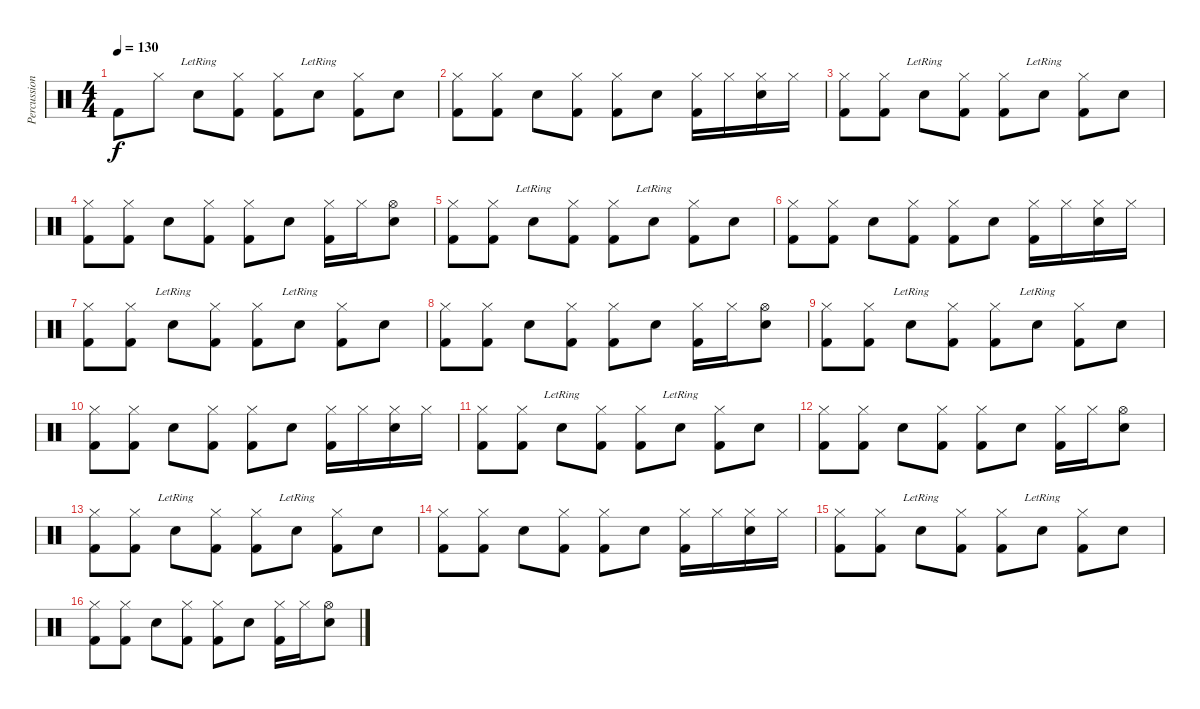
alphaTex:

\track ("Percussion" "Percussion") {instrument percussion}
\staff {score}
\articulation defaults
\ts (4 4)
\tempo 130
\clef neutral
\ks c "Kick (hit) 2".8{dy f} "Hi-Hat (closed)".8 "Snare (hit) 2"{lr}.8
("Hi-Hat (closed)" "Kick (hit) 2").8 ("Hi-Hat (closed)" "Kick (hit) 2").8 "Snare (hit) 2"{lr}.8 ("Hi-Hat (closed)" "Kick (hit) 2").8 "Snare (hit) 2".8 |
("Hi-Hat (closed)" "Kick (hit) 2").8 ("Hi-Hat (closed)" "Kick (hit) 2").8 "Snare (hit) 2".8 ("Hi-Hat (closed)" "Kick (hit) 2").8 ("Hi-Hat (closed)" "Kick (hit) 2").8 "Snare (hit) 2".8 ("Hi-Hat (closed)" "Kick (hit) 2").16 "Hi-Hat (closed)".16 ("Hi-Hat (closed)" "Snare (hit) 2").16 "Hi-Hat (closed)".16 |
("Hi-Hat (closed)" "Kick (hit) 2").8 ("Hi-Hat (closed)" "Kick (hit) 2").8 "Snare (hit) 2"{lr}.8 ("Hi-Hat (closed)" "Kick (hit) 2").8 ("Hi-Hat (closed)" "Kick (hit) 2").8 "Snare (hit) 2"{lr}.8 ("Hi-Hat (closed)" "Kick (hit) 2").8 "Snare (hit) 2".8 |
("Hi-Hat (closed)" "Kick (hit) 2").8 ("Hi-Hat (closed)" "Kick (hit) 2").8 "Snare (hit) 2".8 ("Hi-Hat (closed)" "Kick (hit) 2").8 ("Hi-Hat (closed)" "Kick (hit) 2").8 "Snare (hit) 2".8 ("Hi-Hat (closed)" "Kick (hit) 2").16 "Hi-Hat (closed)".16 ("Hi-Hat (open)" "Snare (hit) 2").8 |
("Hi-Hat (closed)" "Kick (hit) 2").8 ("Hi-Hat (closed)" "Kick (hit) 2").8 "Snare (hit) 2"{lr}.8 ("Hi-Hat (closed)" "Kick (hit) 2").8 ("Hi-Hat (closed)" "Kick (hit) 2").8 "Snare (hit) 2"{lr}.8 ("Hi-Hat (closed)" "Kick (hit) 2").8 "Snare (hit) 2".8 |
("Hi-Hat (closed)" "Kick (hit) 2").8 ("Hi-Hat (closed)" "Kick (hit) 2").8 "Snare (hit) 2".8 ("Hi-Hat (closed)" "Kick (hit) 2").8 ("Hi-Hat (closed)" "Kick (hit) 2").8 "Snare (hit) 2".8 ("Hi-Hat (closed)" "Kick (hit) 2").16 "Hi-Hat (closed)".16 ("Hi-Hat (closed)" "Snare (hit) 2").16 "Hi-Hat (closed)".16 |
("Hi-Hat (closed)" "Kick (hit) 2").8 ("Hi-Hat (closed)" "Kick (hit) 2").8 "Snare (hit) 2"{lr}.8 ("Hi-Hat (closed)" "Kick (hit) 2").8 ("Hi-Hat (closed)" "Kick (hit) 2").8 "Snare (hit) 2"{lr}.8 ("Hi-Hat (closed)" "Kick (hit) 2").8 "Snare (hit) 2".8 |
("Hi-Hat (closed)" "Kick (hit) 2").8 ("Hi-Hat (closed)" "Kick (hit) 2").8 "Snare (hit) 2".8 ("Hi-Hat (closed)" "Kick (hit) 2").8 ("Hi-Hat (closed)" "Kick (hit) 2").8 "Snare (hit) 2".8 ("Hi-Hat (closed)" "Kick (hit) 2").16 "Hi-Hat (closed)".16 ("Hi-Hat (open)" "Snare (hit) 2").8 |
("Hi-Hat (closed)" "Kick (hit) 2").8 ("Hi-Hat (closed)" "Kick (hit) 2").8 "Snare (hit) 2"{lr}.8 ("Hi-Hat (closed)" "Kick (hit) 2").8 ("Hi-Hat (closed)" "Kick (hit) 2").8 "Snare (hit) 2"{lr}.8 ("Hi-Hat (closed)" "Kick (hit) 2").8 "Snare (hit) 2".8 |
("Hi-Hat (closed)" "Kick (hit) 2").8 ("Hi-Hat (closed)" "Kick (hit) 2").8 "Snare (hit) 2".8 ("Hi-Hat (closed)" "Kick (hit) 2").8 ("Hi-Hat (closed)" "Kick (hit) 2").8 "Snare (hit) 2".8 ("Hi-Hat (closed)" "Kick (hit) 2").16 "Hi-Hat (closed)".16 ("Hi-Hat (closed)" "Snare (hit) 2").16 "Hi-Hat (closed)".16 |
("Hi-Hat (closed)" "Kick (hit) 2").8 ("Hi-Hat (closed)" "Kick (hit) 2").8 "Snare (hit) 2"{lr}.8 ("Hi-Hat (closed)" "Kick (hit) 2").8 ("Hi-Hat (closed)" "Kick (hit) 2").8 "Snare (hit) 2"{lr}.8 ("Hi-Hat (closed)" "Kick (hit) 2").8 "Snare (hit) 2".8 |
("Hi-Hat (closed)" "Kick (hit) 2").8 ("Hi-Hat (closed)" "Kick (hit) 2").8 "Snare (hit) 2".8 ("Hi-Hat (closed)" "Kick (hit) 2").8 ("Hi-Hat (closed)" "Kick (hit) 2").8 "Snare (hit) 2".8 ("Hi-Hat (closed)" "Kick (hit) 2").16 "Hi-Hat (closed)".16 ("Hi-Hat (open)" "Snare (hit) 2").8 |
("Hi-Hat (closed)" "Kick (hit) 2").8 ("Hi-Hat (closed)" "Kick (hit) 2").8 "Snare (hit) 2"{lr}.8 ("Hi-Hat (closed)" "Kick (hit) 2").8 ("Hi-Hat (closed)" "Kick (hit) 2").8 "Snare (hit) 2"{lr}.8 ("Hi-Hat (closed)" "Kick (hit) 2").8 "Snare (hit) 2".8 |
("Hi-Hat (closed)" "Kick (hit) 2").8 ("Hi-Hat (closed)" "Kick (hit) 2").8 "Snare (hit) 2".8 ("Hi-Hat (closed)" "Kick (hit) 2").8 ("Hi-Hat (closed)" "Kick (hit) 2").8 "Snare (hit) 2".8 ("Hi-Hat (closed)" "Kick (hit) 2").16 "Hi-Hat (closed)".16 ("Hi-Hat (closed)" "Snare (hit) 2").16 "Hi-Hat (closed)".16 |
("Hi-Hat (closed)" "Kick (hit) 2").8 ("Hi-Hat (closed)" "Kick (hit) 2").8 "Snare (hit) 2"{lr}.8 ("Hi-Hat (closed)" "Kick (hit) 2").8 ("Hi-Hat (closed)" "Kick (hit) 2").8 "Snare (hit) 2"{lr}.8 ("Hi-Hat (closed)" "Kick (hit) 2").8 "Snare (hit) 2".8 |
("Hi-Hat (closed)" "Kick (hit) 2").8 ("Hi-Hat (closed)" "Kick (hit) 2").8 "Snare (hit) 2".8 ("Hi-Hat (closed)" "Kick (hit) 2").8 ("Hi-Hat (closed)" "Kick (hit) 2").8 "Snare (hit) 2".8 ("Hi-Hat (closed)" "Kick (hit) 2").16 "Hi-Hat (closed)".16 ("Hi-Hat (open)" "Snare (hit) 2").8
